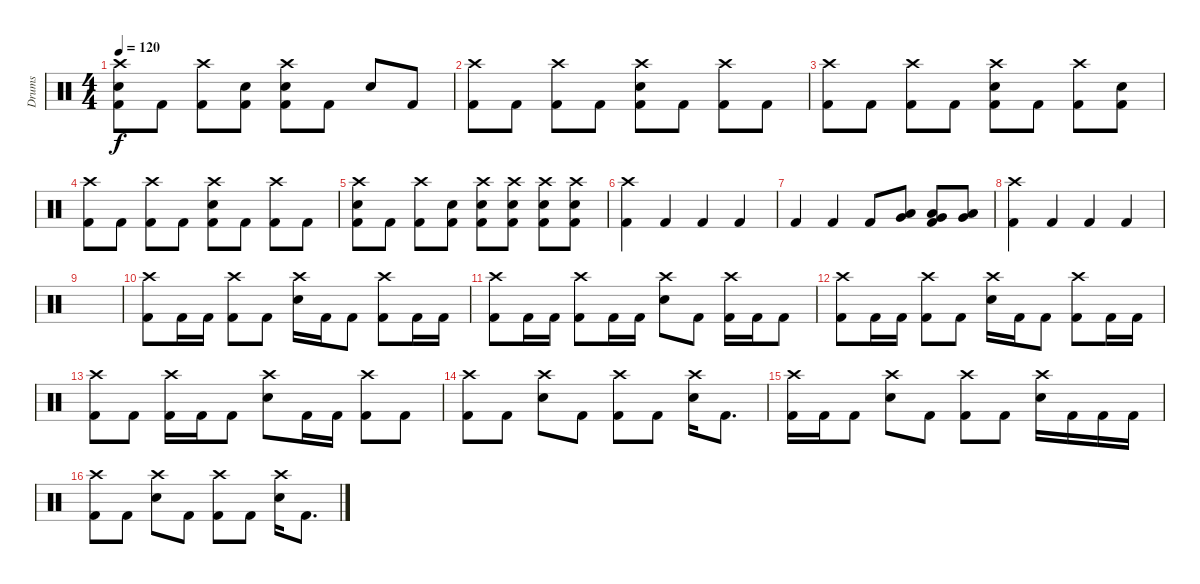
\track ("Drums" "Drums") {instrument percussion}
\staff {score}
\articulation defaults
\ts (4 4)
\tempo 120
\clef neutral
\ks c
("Crash high (hit)" "Electric Snare (hit)" "Kick (hit) 2").8{dy f} "Kick (hit) 2".8 ("Crash high (hit)" "Kick (hit) 2").8 ("Electric Snare (hit)" "Kick (hit) 2").8 ("Crash high (hit)" "Electric Snare (hit)" "Kick (hit) 2").8 "Kick (hit) 2".8 "Electric Snare (hit)".8 "Kick (hit) 2".8 |
("Crash high (hit)" "Kick (hit) 2").8 "Kick (hit) 2".8 ("Crash high (hit)" "Kick (hit) 2").8 "Kick (hit) 2".8 ("Crash high (hit)" "Electric Snare (hit)" "Kick (hit) 2").8 "Kick (hit) 2".8 ("Crash high (hit)" "Kick (hit) 2").8 "Kick (hit) 2".8 |
("Crash high (hit)" "Kick (hit) 2").8 "Kick (hit) 2".8 ("Crash high (hit)" "Kick (hit) 2").8 "Kick (hit) 2".8 ("Crash high (hit)" "Electric Snare (hit)" "Kick (hit) 2").8 "Kick (hit) 2".8 ("Crash high (hit)" "Kick (hit) 2").8 ("Electric Snare (hit)" "Kick (hit) 2").8 |
("Crash high (hit)" "Kick (hit) 2").8 "Kick (hit) 2".8 ("Crash high (hit)" "Kick (hit) 2").8 "Kick (hit) 2".8 ("Crash high (hit)" "Electric Snare (hit)" "Kick (hit) 2").8 "Kick (hit) 2".8 ("Crash high (hit)" "Kick (hit) 2").8 "Kick (hit) 2".8 |
("Crash high (hit)" "Electric Snare (hit)" "Kick (hit) 2").8 "Kick (hit) 2".8 ("Crash high (hit)" "Kick (hit) 2").8 ("Electric Snare (hit)" "Kick (hit) 2").8 ("Crash high (hit)" "Electric Snare (hit)" "Kick (hit) 2").8 ("Crash high (hit)" "Electric Snare (hit)" "Kick (hit) 2").8 ("Crash high (hit)" "Electric Snare (hit)" "Kick (hit) 2").8 ("Crash high (hit)" "Electric Snare (hit)" "Kick (hit) 2").8 |
("Crash high (hit)" "Kick (hit) 2").4 "Kick (hit) 2".4 "Kick (hit) 2".4 "Kick (hit) 2".4 |
"Kick (hit) 2".4 "Kick (hit) 2".4 "Kick (hit) 2".8 ("Low Tom (hit)" "Very Low Tom (hit)").8 ("Low Tom (hit)" "Very Low Tom (hit)" "Kick (hit) 2").8 ("Low Tom (hit)" "Very Low Tom (hit)").8 |
("Crash high (hit)" "Kick (hit) 2").4 "Kick (hit) 2".4 "Kick (hit) 2".4 "Kick (hit) 2".4 |
|
("Crash high (hit)" "Kick (hit) 2").8 "Kick (hit) 2".16 "Kick (hit) 2".16 ("Crash high (hit)" "Kick (hit) 2").8 "Kick (hit) 2".8 ("Crash high (hit)" "Electric Snare (hit)").16 "Kick (hit) 2".16 "Kick (hit) 2".8 ("Crash high (hit)" "Kick (hit) 2").8 "Kick (hit) 2".16 "Kick (hit) 2".16 |
("Crash high (hit)" "Kick (hit) 2").8 "Kick (hit) 2".16 "Kick (hit) 2".16 ("Crash high (hit)" "Kick (hit) 2").8 "Kick (hit) 2".16 "Kick (hit) 2".16 ("Crash high (hit)" "Electric Snare (hit)").8 "Kick (hit) 2".8 ("Crash high (hit)" "Kick (hit) 2").16 "Kick (hit) 2".16 "Kick (hit) 2".8 |
("Crash high (hit)" "Kick (hit) 2").8 "Kick (hit) 2".16 "Kick (hit) 2".16 ("Crash high (hit)" "Kick (hit) 2").8 "Kick (hit) 2".8 ("Crash high (hit)" "Electric Snare (hit)").16 "Kick (hit) 2".16 "Kick (hit) 2".8 ("Crash high (hit)" "Kick (hit) 2").8 "Kick (hit) 2".16 "Kick (hit) 2".16 |
("Crash high (hit)" "Kick (hit) 2").8 "Kick (hit) 2".8 ("Crash high (hit)" "Kick (hit) 2").16 "Kick (hit) 2".16 "Kick (hit) 2".8 ("Crash high (hit)" "Electric Snare (hit)").8 "Kick (hit) 2".16 "Kick (hit) 2".16 ("Crash high (hit)" "Kick (hit) 2").8 "Kick (hit) 2".8 |
("Crash high (hit)" "Kick (hit) 2").8 "Kick (hit) 2".8 ("Crash high (hit)" "Electric Snare (hit)").8 "Kick (hit) 2".8 ("Crash high (hit)" "Kick (hit) 2").8 "Kick (hit) 2".8 ("Crash high (hit)" "Electric Snare (hit)").16 "Kick (hit) 2".8{d} |
("Crash high (hit)" "Kick (hit) 2").16 "Kick (hit) 2".16 "Kick (hit) 2".8 ("Crash high (hit)" "Electric Snare (hit)").8 "Kick (hit) 2".8 ("Crash high (hit)" "Kick (hit) 2").8 "Kick (hit) 2".8 ("Crash high (hit)" "Electric Snare (hit)").16 "Kick (hit) 2".16 "Kick (hit) 2".16 "Kick (hit) 2".16 |
("Crash high (hit)" "Kick (hit) 2").8 "Kick (hit) 2".8 ("Crash high (hit)" "Electric Snare (hit)").8 "Kick (hit) 2".8 ("Crash high (hit)" "Kick (hit) 2").8 "Kick (hit) 2".8 ("Crash high (hit)" "Electric Snare (hit)").16 "Kick (hit) 2".8{d}
